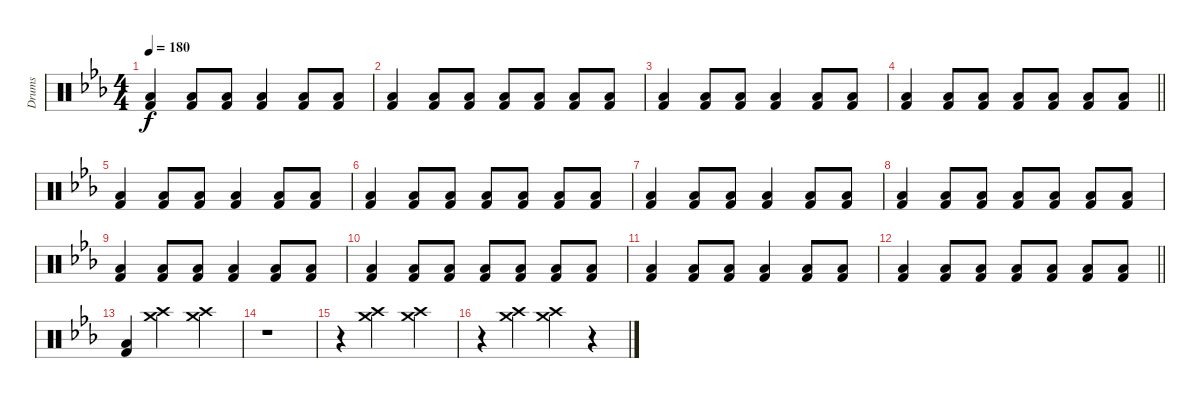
\track ("Drums" "Drums") {instrument percussion}
\staff {score}
\articulation defaults
\ts (4 4)
\tempo 180
\clef neutral
\ks eb
("Low Tom (hit)" "Kick (hit) 2").4{dy f} ("Low Tom (hit)" "Kick (hit) 2").8 ("Low Tom (hit)" "Kick (hit) 2").8 ("Low Tom (hit)" "Kick (hit) 2").4 ("Low Tom (hit)" "Kick (hit) 2").8 ("Low Tom (hit)" "Kick (hit) 2").8 |
("Low Tom (hit)" "Kick (hit) 2").4 ("Low Tom (hit)" "Kick (hit) 2").8 ("Low Tom (hit)" "Kick (hit) 2").8 ("Low Tom (hit)" "Kick (hit) 2").8 ("Low Tom (hit)" "Kick (hit) 2").8 ("Low Tom (hit)" "Kick (hit) 2").8 ("Low Tom (hit)" "Kick (hit) 2").8 |
("Low Tom (hit)" "Kick (hit) 2").4 ("Low Tom (hit)" "Kick (hit) 2").8 ("Low Tom (hit)" "Kick (hit) 2").8 ("Low Tom (hit)" "Kick (hit) 2").4 ("Low Tom (hit)" "Kick (hit) 2").8 ("Low Tom (hit)" "Kick (hit) 2").8 |
\barLineRight lightlight
("Low Tom (hit)" "Kick (hit) 2").4 ("Low Tom (hit)" "Kick (hit) 2").8 ("Low Tom (hit)" "Kick (hit) 2").8 ("Low Tom (hit)" "Kick (hit) 2").8 ("Low Tom (hit)" "Kick (hit) 2").8 ("Low Tom (hit)" "Kick (hit) 2").8 ("Low Tom (hit)" "Kick (hit) 2").8 |
\section ("" "")
("Low Tom (hit)" "Kick (hit) 2").4 ("Low Tom (hit)" "Kick (hit) 2").8 ("Low Tom (hit)" "Kick (hit) 2").8 ("Low Tom (hit)" "Kick (hit) 2").4 ("Low Tom (hit)" "Kick (hit) 2").8 ("Low Tom (hit)" "Kick (hit) 2").8 |
("Low Tom (hit)" "Kick (hit) 2").4 ("Low Tom (hit)" "Kick (hit) 2").8 ("Low Tom (hit)" "Kick (hit) 2").8 ("Low Tom (hit)" "Kick (hit) 2").8 ("Low Tom (hit)" "Kick (hit) 2").8 ("Low Tom (hit)" "Kick (hit) 2").8 ("Low Tom (hit)" "Kick (hit) 2").8 |
("Low Tom (hit)" "Kick (hit) 2").4 ("Low Tom (hit)" "Kick (hit) 2").8 ("Low Tom (hit)" "Kick (hit) 2").8 ("Low Tom (hit)" "Kick (hit) 2").4 ("Low Tom (hit)" "Kick (hit) 2").8 ("Low Tom (hit)" "Kick (hit) 2").8 |
("Low Tom (hit)" "Kick (hit) 2").4 ("Low Tom (hit)" "Kick (hit) 2").8 ("Low Tom (hit)" "Kick (hit) 2").8 ("Low Tom (hit)" "Kick (hit) 2").8 ("Low Tom (hit)" "Kick (hit) 2").8 ("Low Tom (hit)" "Kick (hit) 2").8 ("Low Tom (hit)" "Kick (hit) 2").8 |
("Low Tom (hit)" "Kick (hit) 2").4 ("Low Tom (hit)" "Kick (hit) 2").8 ("Low Tom (hit)" "Kick (hit) 2").8 ("Low Tom (hit)" "Kick (hit) 2").4 ("Low Tom (hit)" "Kick (hit) 2").8 ("Low Tom (hit)" "Kick (hit) 2").8 |
("Low Tom (hit)" "Kick (hit) 2").4 ("Low Tom (hit)" "Kick (hit) 2").8 ("Low Tom (hit)" "Kick (hit) 2").8 ("Low Tom (hit)" "Kick (hit) 2").8 ("Low Tom (hit)" "Kick (hit) 2").8 ("Low Tom (hit)" "Kick (hit) 2").8 ("Low Tom (hit)" "Kick (hit) 2").8 |
("Low Tom (hit)" "Kick (hit) 2").4 ("Low Tom (hit)" "Kick (hit) 2").8 ("Low Tom (hit)" "Kick (hit) 2").8 ("Low Tom (hit)" "Kick (hit) 2").4 ("Low Tom (hit)" "Kick (hit) 2").8 ("Low Tom (hit)" "Kick (hit) 2").8 |
\barLineRight lightlight
("Low Tom (hit)" "Kick (hit) 2").4 ("Low Tom (hit)" "Kick (hit) 2").8 ("Low Tom (hit)" "Kick (hit) 2").8 ("Low Tom (hit)" "Kick (hit) 2").8 ("Low Tom (hit)" "Kick (hit) 2").8 ("Low Tom (hit)" "Kick (hit) 2").8 ("Low Tom (hit)" "Kick (hit) 2").8 |
\section ("" "")
("Low Tom (hit)" "Kick (hit) 2").4 ("Crash medium (hit)" "Crash high (hit)").2 ("Crash medium (hit)" "Crash high (hit)").4 |
r.1 |
r.4 ("Crash medium (hit)" "Crash high (hit)").2 ("Crash medium (hit)" "Crash high (hit)").4 |
r.4 ("Crash medium (hit)" "Crash high (hit)").4 ("Crash medium (hit)" "Crash high (hit)").4 r.4
